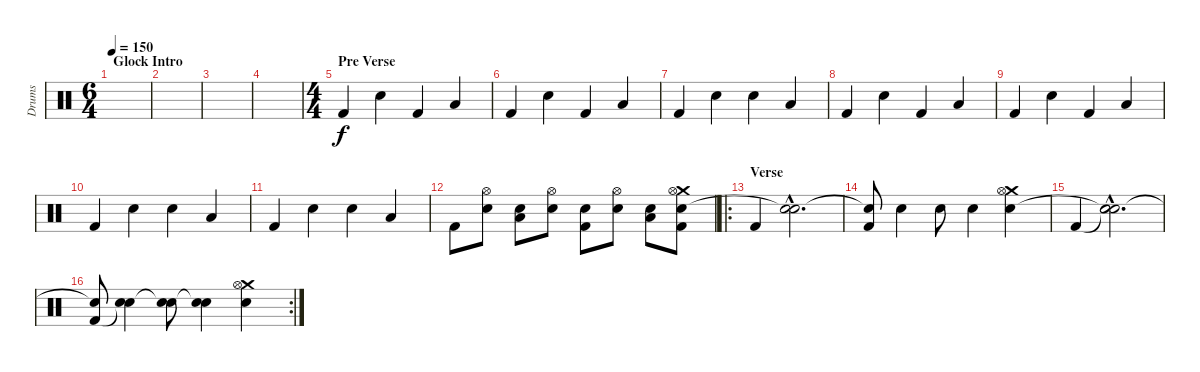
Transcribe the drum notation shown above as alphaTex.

\track ("Drums" "Drums") {instrument percussion}
\staff {score}
\articulation defaults
\ts (6 4)
\section ("" "Glock Intro")
\tempo 150
\tempo 120
\tempo 150
\clef neutral
\ks c
|
|
|
|
\ts (4 4)
\section ("" "Pre Verse")
"Kick (hit) 2".4 "Snare (hit) 2".4 "Kick (hit) 2".4 "Low Floor Tom (hit)".4 |
"Kick (hit) 2".4 "Snare (hit) 2".4 "Kick (hit) 2".4 "Low Floor Tom (hit)".4 |
"Kick (hit) 2".4 "Snare (hit) 2".4 "Snare (hit) 2".4 "Low Floor Tom (hit)".4 |
"Kick (hit) 2".4 "Snare (hit) 2".4 "Kick (hit) 2".4 "Low Floor Tom (hit)".4 |
"Kick (hit) 2".4 "Snare (hit) 2".4 "Kick (hit) 2".4 "Low Floor Tom (hit)".4 |
"Kick (hit) 2".4 "Snare (hit) 2".4 "Snare (hit) 2".4 "Low Floor Tom (hit)".4 |
"Kick (hit) 2".4 "Snare (hit) 2".4 "Snare (hit) 2".4 "Low Floor Tom (hit)".4 |
"Kick (hit) 2".8 ("Snare (hit) 2" "Hi-Hat (open)").8 ("Low Floor Tom (hit)" "Snare (hit) 2").8 ("Snare (hit) 2" "Hi-Hat (open)").8 ("Snare (hit) 2" "Kick (hit) 2").8 ("Snare (hit) 2" "Hi-Hat (open)").8 ("Low Floor Tom (hit)" "Snare (hit) 2").8 ("Crash medium (hit)" "Snare (hit) 2" "Hi-Hat (open)" "Kick (hit) 2").8 |
\ro
\section ("" "Verse")
"Kick (hit) 2".4 ("Snare (hit) 2"{hac} "Snare (hit)"{hac t}).2{d} |
("Snare (hit)"{t} "Kick (hit) 2").8 "Snare (hit) 2".4 "Snare (hit) 2".8 "Snare (hit) 2".4 ("Crash medium (hit)" "Hi-Hat (open)" "Snare (hit) 2").4 |
"Kick (hit) 2".4 ("Snare (hit)"{hac t} "Snare (hit) 2"{hac} "Snare (hit)"{hac t}).2{d} |
\rc 2
("Snare (hit)"{t} "Kick (hit) 2").8 ("Snare (hit) 2" "Snare (hit)"{t}).4 ("Snare (hit)"{t} "Snare (hit) 2").8 ("Snare (hit) 2" "Snare (hit)"{t}).4 ("Crash medium (hit)" "Hi-Hat (open)" "Snare (hit) 2").4
